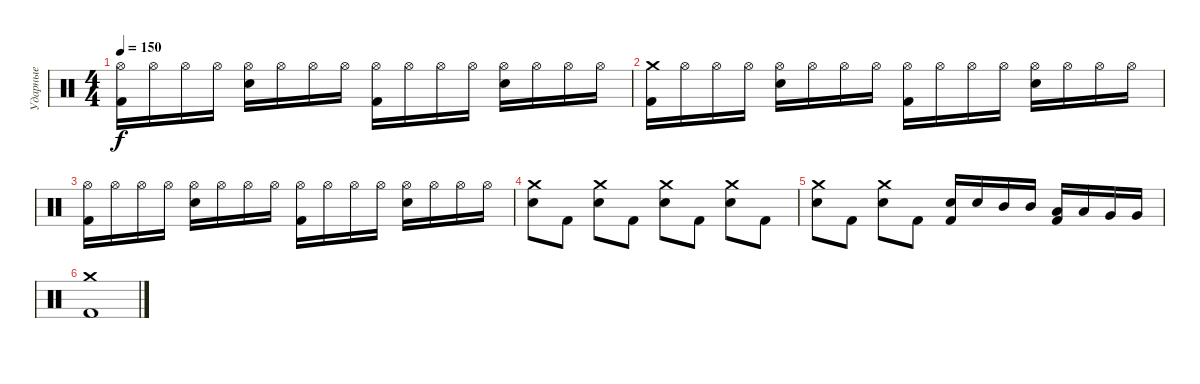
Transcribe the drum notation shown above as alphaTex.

\track ("Ударные" "Ударные") {instrument percussion}
\staff {score}
\articulation defaults
\ts (4 4)
\tempo 150
\clef neutral
\ks c
("Hi-Hat (open)" "Kick (hit) 2").16{dy f} "Hi-Hat (open)".16 "Hi-Hat (open)".16 "Hi-Hat (open)".16 ("Hi-Hat (open)" "Electric Snare (hit)").16 "Hi-Hat (open)".16 "Hi-Hat (open)".16 "Hi-Hat (open)".16 ("Hi-Hat (open)" "Kick (hit) 2").16 "Hi-Hat (open)".16 "Hi-Hat (open)".16 "Hi-Hat (open)".16 ("Hi-Hat (open)" "Electric Snare (hit)").16 "Hi-Hat (open)".16 "Hi-Hat (open)".16 "Hi-Hat (open)".16 |
("Crash medium (hit)" "Kick (hit) 2").16 "Hi-Hat (open)".16 "Hi-Hat (open)".16 "Hi-Hat (open)".16 ("Hi-Hat (open)" "Electric Snare (hit)").16 "Hi-Hat (open)".16 "Hi-Hat (open)".16 "Hi-Hat (open)".16 ("Hi-Hat (open)" "Kick (hit) 2").16 "Hi-Hat (open)".16 "Hi-Hat (open)".16 "Hi-Hat (open)".16 ("Hi-Hat (open)" "Electric Snare (hit)").16 "Hi-Hat (open)".16 "Hi-Hat (open)".16 "Hi-Hat (open)".16 |
("Hi-Hat (open)" "Kick (hit) 2").16 "Hi-Hat (open)".16 "Hi-Hat (open)".16 "Hi-Hat (open)".16 ("Hi-Hat (open)" "Electric Snare (hit)").16 "Hi-Hat (open)".16 "Hi-Hat (open)".16 "Hi-Hat (open)".16 ("Hi-Hat (open)" "Kick (hit) 2").16 "Hi-Hat (open)".16 "Hi-Hat (open)".16 "Hi-Hat (open)".16 ("Hi-Hat (open)" "Electric Snare (hit)").16 "Hi-Hat (open)".16 "Hi-Hat (open)".16 "Hi-Hat (open)".16 |
("Crash medium (hit)" "Electric Snare (hit)").8 "Kick (hit) 2".8 ("Crash medium (hit)" "Electric Snare (hit)").8 "Kick (hit) 2".8 ("Crash medium (hit)" "Electric Snare (hit)").8 "Kick (hit) 2".8 ("Crash medium (hit)" "Electric Snare (hit)").8 "Kick (hit) 2".8 |
("Crash medium (hit)" "Electric Snare (hit)").8 "Kick (hit) 2".8 ("Crash medium (hit)" "Electric Snare (hit)").8 "Kick (hit) 2".8 ("Electric Snare (hit)" "Kick (hit) 2").16 "Electric Snare (hit)".16 "Mid Tom (hit)".16 "Mid Tom (hit)".16 ("Low Tom (hit)" "Kick (hit) 2").16 "Low Tom (hit)".16 "Very Low Tom (hit)".16 "Very Low Tom (hit)".16 |
("Crash medium (hit)" "Kick (hit) 2").1
